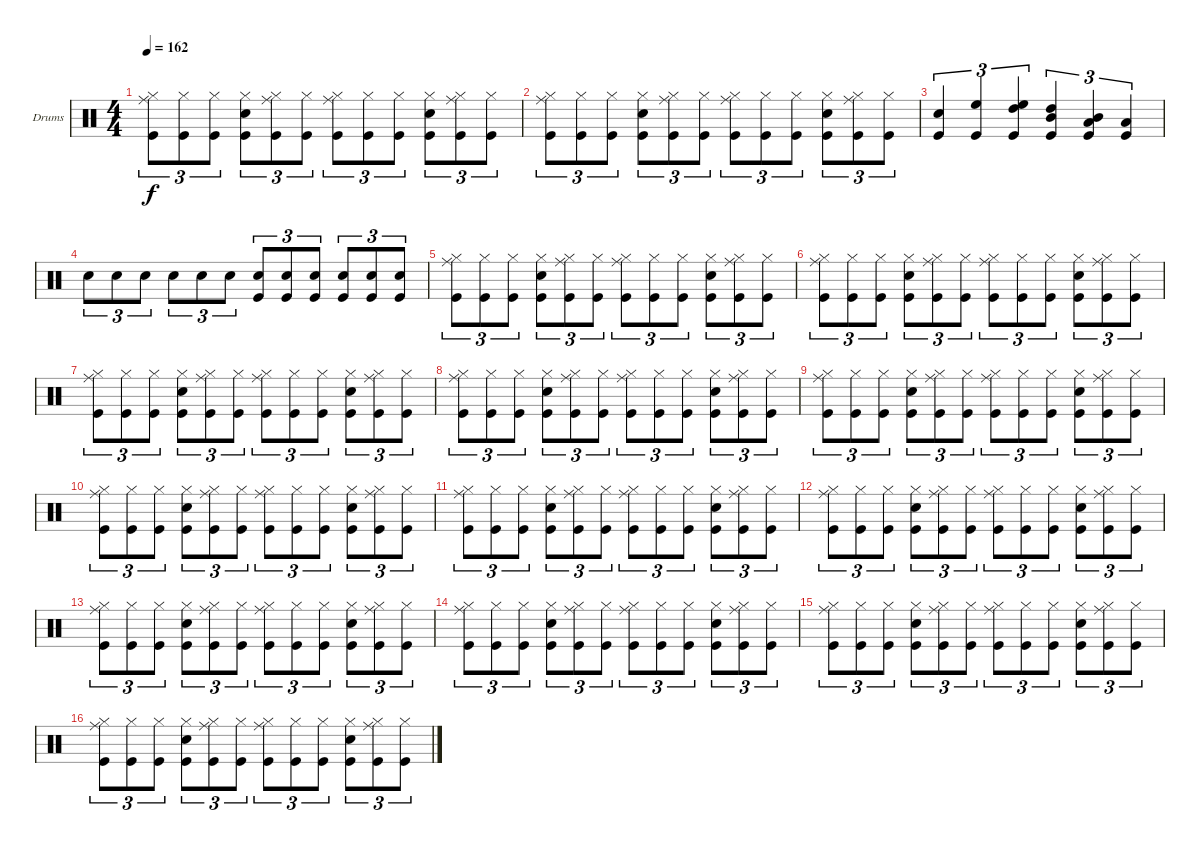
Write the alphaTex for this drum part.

\bracketExtendMode groupsimilarinstruments
\firstSystemTrackNameOrientation horizontal
\otherSystemsTrackNameOrientation horizontal
\track ("Drumkit" "Drums") {instrument percussion}
\staff {score}
\articulation defaults
\ts (4 4)
\tempo 162
\clef neutral
\ks c
("Kick (hit)" "Ride (middle)" "Hi-Hat (closed)").8{tu (3 2) dy f} ("Kick (hit)" "Hi-Hat (closed)").8{tu (3 2)} ("Kick (hit)" "Hi-Hat (closed)").8{tu (3 2)} ("Kick (hit)" "Snare (hit) 2" "Hi-Hat (closed)").8{tu (3 2)} ("Kick (hit)" "Ride (middle)" "Hi-Hat (closed)").8{tu (3 2)} ("Kick (hit)" "Hi-Hat (closed)").8{tu (3 2)} ("Kick (hit)" "Ride (middle)" "Hi-Hat (closed)").8{tu (3 2)} ("Kick (hit)" "Hi-Hat (closed)").8{tu (3 2)} ("Kick (hit)" "Hi-Hat (closed)").8{tu (3 2)} ("Kick (hit)" "Snare (hit) 2" "Hi-Hat (closed)").8{tu (3 2)} ("Kick (hit)" "Ride (middle)" "Hi-Hat (closed)").8{tu (3 2)} ("Kick (hit)" "Hi-Hat (closed)").8{tu (3 2)} |
("Kick (hit)" "Ride (middle)" "Hi-Hat (closed)").8{tu (3 2)} ("Kick (hit)" "Hi-Hat (closed)").8{tu (3 2)} ("Kick (hit)" "Hi-Hat (closed)").8{tu (3 2)} ("Kick (hit)" "Snare (hit) 2" "Hi-Hat (closed)").8{tu (3 2)} ("Kick (hit)" "Ride (middle)" "Hi-Hat (closed)").8{tu (3 2)} ("Kick (hit)" "Hi-Hat (closed)").8{tu (3 2)} ("Kick (hit)" "Ride (middle)" "Hi-Hat (closed)").8{tu (3 2)} ("Kick (hit)" "Hi-Hat (closed)").8{tu (3 2)} ("Kick (hit)" "Hi-Hat (closed)").8{tu (3 2)} ("Kick (hit)" "Snare (hit) 2" "Hi-Hat (closed)").8{tu (3 2)} ("Kick (hit)" "Ride (middle)" "Hi-Hat (closed)").8{tu (3 2)} ("Kick (hit)" "Hi-Hat (closed)").8{tu (3 2)} |
("Snare (hit) 2" "Kick (hit)").4{tu (3 2)} ("High Floor Tom (hit)" "Kick (hit)").4{tu (3 2)} ("High Tom (hit)" "High Floor Tom (hit)" "Kick (hit)").4{tu (3 2)} ("Mid Tom (hit)" "High Tom (hit)" "Kick (hit)").4{tu (3 2)} ("Low Tom (hit)" "Mid Tom (hit)" "Kick (hit)").4{tu (3 2)} ("Low Tom (hit)" "Kick (hit)").4{tu (3 2)} |
"Snare (hit) 2".8{tu (3 2)} "Snare (hit) 2".8{tu (3 2)} "Snare (hit) 2".8{tu (3 2)} "Snare (hit) 2".8{tu (3 2)} "Snare (hit) 2".8{tu (3 2)} "Snare (hit) 2".8{tu (3 2)} ("Kick (hit)" "Snare (hit) 2").8{tu (3 2)} ("Kick (hit)" "Snare (hit) 2").8{tu (3 2)} ("Kick (hit)" "Snare (hit) 2").8{tu (3 2)} ("Kick (hit)" "Snare (hit) 2").8{tu (3 2)} ("Kick (hit)" "Snare (hit) 2").8{tu (3 2)} ("Kick (hit)" "Snare (hit) 2").8{tu (3 2)} |
("Kick (hit)" "Ride (middle)" "Hi-Hat (closed)").8{tu (3 2)} ("Kick (hit)" "Hi-Hat (closed)").8{tu (3 2)} ("Kick (hit)" "Hi-Hat (closed)").8{tu (3 2)} ("Kick (hit)" "Snare (hit) 2" "Hi-Hat (closed)").8{tu (3 2)} ("Kick (hit)" "Ride (middle)" "Hi-Hat (closed)").8{tu (3 2)} ("Kick (hit)" "Hi-Hat (closed)").8{tu (3 2)} ("Kick (hit)" "Ride (middle)" "Hi-Hat (closed)").8{tu (3 2)} ("Kick (hit)" "Hi-Hat (closed)").8{tu (3 2)} ("Kick (hit)" "Hi-Hat (closed)").8{tu (3 2)} ("Kick (hit)" "Snare (hit) 2" "Hi-Hat (closed)").8{tu (3 2)} ("Kick (hit)" "Ride (middle)" "Hi-Hat (closed)").8{tu (3 2)} ("Kick (hit)" "Hi-Hat (closed)").8{tu (3 2)} |
("Kick (hit)" "Ride (middle)" "Hi-Hat (closed)").8{tu (3 2)} ("Kick (hit)" "Hi-Hat (closed)").8{tu (3 2)} ("Kick (hit)" "Hi-Hat (closed)").8{tu (3 2)} ("Kick (hit)" "Snare (hit) 2" "Hi-Hat (closed)").8{tu (3 2)} ("Kick (hit)" "Ride (middle)" "Hi-Hat (closed)").8{tu (3 2)} ("Kick (hit)" "Hi-Hat (closed)").8{tu (3 2)} ("Kick (hit)" "Ride (middle)" "Hi-Hat (closed)").8{tu (3 2)} ("Kick (hit)" "Hi-Hat (closed)").8{tu (3 2)} ("Kick (hit)" "Hi-Hat (closed)").8{tu (3 2)} ("Kick (hit)" "Snare (hit) 2" "Hi-Hat (closed)").8{tu (3 2)} ("Kick (hit)" "Ride (middle)" "Hi-Hat (closed)").8{tu (3 2)} ("Kick (hit)" "Hi-Hat (closed)").8{tu (3 2)} |
("Kick (hit)" "Ride (middle)" "Hi-Hat (closed)").8{tu (3 2)} ("Kick (hit)" "Hi-Hat (closed)").8{tu (3 2)} ("Kick (hit)" "Hi-Hat (closed)").8{tu (3 2)} ("Kick (hit)" "Snare (hit) 2" "Hi-Hat (closed)").8{tu (3 2)} ("Kick (hit)" "Ride (middle)" "Hi-Hat (closed)").8{tu (3 2)} ("Kick (hit)" "Hi-Hat (closed)").8{tu (3 2)} ("Kick (hit)" "Ride (middle)" "Hi-Hat (closed)").8{tu (3 2)} ("Kick (hit)" "Hi-Hat (closed)").8{tu (3 2)} ("Kick (hit)" "Hi-Hat (closed)").8{tu (3 2)} ("Kick (hit)" "Snare (hit) 2" "Hi-Hat (closed)").8{tu (3 2)} ("Kick (hit)" "Ride (middle)" "Hi-Hat (closed)").8{tu (3 2)} ("Kick (hit)" "Hi-Hat (closed)").8{tu (3 2)} |
("Kick (hit)" "Ride (middle)" "Hi-Hat (closed)").8{tu (3 2)} ("Kick (hit)" "Hi-Hat (closed)").8{tu (3 2)} ("Kick (hit)" "Hi-Hat (closed)").8{tu (3 2)} ("Kick (hit)" "Snare (hit) 2" "Hi-Hat (closed)").8{tu (3 2)} ("Kick (hit)" "Ride (middle)" "Hi-Hat (closed)").8{tu (3 2)} ("Kick (hit)" "Hi-Hat (closed)").8{tu (3 2)} ("Kick (hit)" "Ride (middle)" "Hi-Hat (closed)").8{tu (3 2)} ("Kick (hit)" "Hi-Hat (closed)").8{tu (3 2)} ("Kick (hit)" "Hi-Hat (closed)").8{tu (3 2)} ("Kick (hit)" "Snare (hit) 2" "Hi-Hat (closed)").8{tu (3 2)} ("Kick (hit)" "Ride (middle)" "Hi-Hat (closed)").8{tu (3 2)} ("Kick (hit)" "Hi-Hat (closed)").8{tu (3 2)} |
("Kick (hit)" "Ride (middle)" "Hi-Hat (closed)").8{tu (3 2)} ("Kick (hit)" "Hi-Hat (closed)").8{tu (3 2)} ("Kick (hit)" "Hi-Hat (closed)").8{tu (3 2)} ("Kick (hit)" "Snare (hit) 2" "Hi-Hat (closed)").8{tu (3 2)} ("Kick (hit)" "Ride (middle)" "Hi-Hat (closed)").8{tu (3 2)} ("Kick (hit)" "Hi-Hat (closed)").8{tu (3 2)} ("Kick (hit)" "Ride (middle)" "Hi-Hat (closed)").8{tu (3 2)} ("Kick (hit)" "Hi-Hat (closed)").8{tu (3 2)} ("Kick (hit)" "Hi-Hat (closed)").8{tu (3 2)} ("Kick (hit)" "Snare (hit) 2" "Hi-Hat (closed)").8{tu (3 2)} ("Kick (hit)" "Ride (middle)" "Hi-Hat (closed)").8{tu (3 2)} ("Kick (hit)" "Hi-Hat (closed)").8{tu (3 2)} |
("Kick (hit)" "Ride (middle)" "Hi-Hat (closed)").8{tu (3 2)} ("Kick (hit)" "Hi-Hat (closed)").8{tu (3 2)} ("Kick (hit)" "Hi-Hat (closed)").8{tu (3 2)} ("Kick (hit)" "Snare (hit) 2" "Hi-Hat (closed)").8{tu (3 2)} ("Kick (hit)" "Ride (middle)" "Hi-Hat (closed)").8{tu (3 2)} ("Kick (hit)" "Hi-Hat (closed)").8{tu (3 2)} ("Kick (hit)" "Ride (middle)" "Hi-Hat (closed)").8{tu (3 2)} ("Kick (hit)" "Hi-Hat (closed)").8{tu (3 2)} ("Kick (hit)" "Hi-Hat (closed)").8{tu (3 2)} ("Kick (hit)" "Snare (hit) 2" "Hi-Hat (closed)").8{tu (3 2)} ("Kick (hit)" "Ride (middle)" "Hi-Hat (closed)").8{tu (3 2)} ("Kick (hit)" "Hi-Hat (closed)").8{tu (3 2)} |
("Kick (hit)" "Ride (middle)" "Hi-Hat (closed)").8{tu (3 2)} ("Kick (hit)" "Hi-Hat (closed)").8{tu (3 2)} ("Kick (hit)" "Hi-Hat (closed)").8{tu (3 2)} ("Kick (hit)" "Snare (hit) 2" "Hi-Hat (closed)").8{tu (3 2)} ("Kick (hit)" "Ride (middle)" "Hi-Hat (closed)").8{tu (3 2)} ("Kick (hit)" "Hi-Hat (closed)").8{tu (3 2)} ("Kick (hit)" "Ride (middle)" "Hi-Hat (closed)").8{tu (3 2)} ("Kick (hit)" "Hi-Hat (closed)").8{tu (3 2)} ("Kick (hit)" "Hi-Hat (closed)").8{tu (3 2)} ("Kick (hit)" "Snare (hit) 2" "Hi-Hat (closed)").8{tu (3 2)} ("Kick (hit)" "Ride (middle)" "Hi-Hat (closed)").8{tu (3 2)} ("Kick (hit)" "Hi-Hat (closed)").8{tu (3 2)} |
("Kick (hit)" "Ride (middle)" "Hi-Hat (closed)").8{tu (3 2)} ("Kick (hit)" "Hi-Hat (closed)").8{tu (3 2)} ("Kick (hit)" "Hi-Hat (closed)").8{tu (3 2)} ("Kick (hit)" "Snare (hit) 2" "Hi-Hat (closed)").8{tu (3 2)} ("Kick (hit)" "Ride (middle)" "Hi-Hat (closed)").8{tu (3 2)} ("Kick (hit)" "Hi-Hat (closed)").8{tu (3 2)} ("Kick (hit)" "Ride (middle)" "Hi-Hat (closed)").8{tu (3 2)} ("Kick (hit)" "Hi-Hat (closed)").8{tu (3 2)} ("Kick (hit)" "Hi-Hat (closed)").8{tu (3 2)} ("Kick (hit)" "Snare (hit) 2" "Hi-Hat (closed)").8{tu (3 2)} ("Kick (hit)" "Ride (middle)" "Hi-Hat (closed)").8{tu (3 2)} ("Kick (hit)" "Hi-Hat (closed)").8{tu (3 2)} |
("Kick (hit)" "Ride (middle)" "Hi-Hat (closed)").8{tu (3 2)} ("Kick (hit)" "Hi-Hat (closed)").8{tu (3 2)} ("Kick (hit)" "Hi-Hat (closed)").8{tu (3 2)} ("Kick (hit)" "Snare (hit) 2" "Hi-Hat (closed)").8{tu (3 2)} ("Kick (hit)" "Ride (middle)" "Hi-Hat (closed)").8{tu (3 2)} ("Kick (hit)" "Hi-Hat (closed)").8{tu (3 2)} ("Kick (hit)" "Ride (middle)" "Hi-Hat (closed)").8{tu (3 2)} ("Kick (hit)" "Hi-Hat (closed)").8{tu (3 2)} ("Kick (hit)" "Hi-Hat (closed)").8{tu (3 2)} ("Kick (hit)" "Snare (hit) 2" "Hi-Hat (closed)").8{tu (3 2)} ("Kick (hit)" "Ride (middle)" "Hi-Hat (closed)").8{tu (3 2)} ("Kick (hit)" "Hi-Hat (closed)").8{tu (3 2)} |
("Kick (hit)" "Ride (middle)" "Hi-Hat (closed)").8{tu (3 2)} ("Kick (hit)" "Hi-Hat (closed)").8{tu (3 2)} ("Kick (hit)" "Hi-Hat (closed)").8{tu (3 2)} ("Kick (hit)" "Snare (hit) 2" "Hi-Hat (closed)").8{tu (3 2)} ("Kick (hit)" "Ride (middle)" "Hi-Hat (closed)").8{tu (3 2)} ("Kick (hit)" "Hi-Hat (closed)").8{tu (3 2)} ("Kick (hit)" "Ride (middle)" "Hi-Hat (closed)").8{tu (3 2)} ("Kick (hit)" "Hi-Hat (closed)").8{tu (3 2)} ("Kick (hit)" "Hi-Hat (closed)").8{tu (3 2)} ("Kick (hit)" "Snare (hit) 2" "Hi-Hat (closed)").8{tu (3 2)} ("Kick (hit)" "Ride (middle)" "Hi-Hat (closed)").8{tu (3 2)} ("Kick (hit)" "Hi-Hat (closed)").8{tu (3 2)} |
("Kick (hit)" "Ride (middle)" "Hi-Hat (closed)").8{tu (3 2)} ("Kick (hit)" "Hi-Hat (closed)").8{tu (3 2)} ("Kick (hit)" "Hi-Hat (closed)").8{tu (3 2)} ("Kick (hit)" "Snare (hit) 2" "Hi-Hat (closed)").8{tu (3 2)} ("Kick (hit)" "Ride (middle)" "Hi-Hat (closed)").8{tu (3 2)} ("Kick (hit)" "Hi-Hat (closed)").8{tu (3 2)} ("Kick (hit)" "Ride (middle)" "Hi-Hat (closed)").8{tu (3 2)} ("Kick (hit)" "Hi-Hat (closed)").8{tu (3 2)} ("Kick (hit)" "Hi-Hat (closed)").8{tu (3 2)} ("Kick (hit)" "Snare (hit) 2" "Hi-Hat (closed)").8{tu (3 2)} ("Kick (hit)" "Ride (middle)" "Hi-Hat (closed)").8{tu (3 2)} ("Kick (hit)" "Hi-Hat (closed)").8{tu (3 2)} |
("Kick (hit)" "Ride (middle)" "Hi-Hat (closed)").8{tu (3 2)} ("Kick (hit)" "Hi-Hat (closed)").8{tu (3 2)} ("Kick (hit)" "Hi-Hat (closed)").8{tu (3 2)} ("Kick (hit)" "Snare (hit) 2" "Hi-Hat (closed)").8{tu (3 2)} ("Kick (hit)" "Ride (middle)" "Hi-Hat (closed)").8{tu (3 2)} ("Kick (hit)" "Hi-Hat (closed)").8{tu (3 2)} ("Kick (hit)" "Ride (middle)" "Hi-Hat (closed)").8{tu (3 2)} ("Kick (hit)" "Hi-Hat (closed)").8{tu (3 2)} ("Kick (hit)" "Hi-Hat (closed)").8{tu (3 2)} ("Kick (hit)" "Snare (hit) 2" "Hi-Hat (closed)").8{tu (3 2)} ("Kick (hit)" "Ride (middle)" "Hi-Hat (closed)").8{tu (3 2)} ("Kick (hit)" "Hi-Hat (closed)").8{tu (3 2)}
